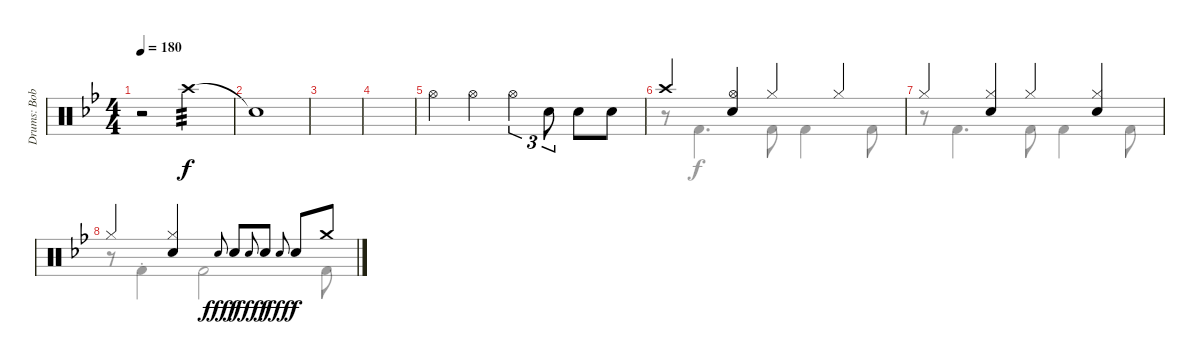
\track ("Drums: Bobby" "Drums: Bob") {instrument percussion}
\staff {score}
\articulation defaults
\voice
\ts (4 4)
\tempo 180
\clef neutral
\ks bb
r.2{dy f} "Crash high (hit)".2{tp 3} |
"Snare (hit)"{t}.1 |
|
|
"Hi-Hat (open)".4 "Hi-Hat (open)".4 "Hi-Hat (open)".4{tu (3 2)} "Snare (hit) 2".8{tu (3 2)} "Snare (hit) 2".8 "Snare (hit) 2".8 |
"Crash high (hit)".4 ("Hi-Hat (open)" "Snare (hit) 2").4 "Hi-Hat (closed)".4 "Hi-Hat (closed)".4 |
"Hi-Hat (closed)".4 ("Hi-Hat (closed)" "Snare (hit) 2").4 "Hi-Hat (closed)".4 ("Hi-Hat (closed)" "Snare (hit) 2").4 |
"Hi-Hat (closed)".4 ("Hi-Hat (closed)" "Snare (hit) 2").4 "Electric Snare (hit)".8{gr onbeat dy fff} "Snare (hit) 2".8{dy f} "Electric Snare (hit)".8{gr onbeat dy fff} "Snare (hit) 2".8{dy f} "Electric Snare (hit)".8{gr onbeat dy fff beam merge} "Snare (hit) 2".8{dy f} "Crash medium (hit)".8
\voice
\clef neutral
\ottava regular
\simile none
\ks bb
|
|
|
|
|
r.8 "Kick (hit) 2".4{d} "Kick (hit) 2".8 "Kick (hit) 2".4 "Kick (hit) 2".8 |
r.8 "Kick (hit) 2".4{d} "Kick (hit) 2".8 "Kick (hit) 2".4 "Kick (hit) 2".8 |
r.8 "Kick (hit) 2"{st}.4 "Kick (hit) 2".2 "Kick (hit) 2".8
